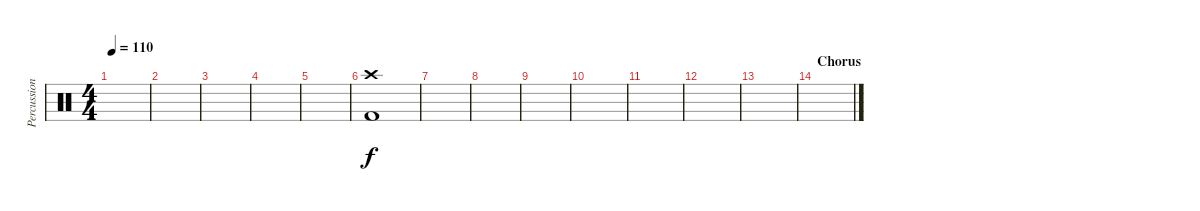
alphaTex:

\track ("Percussion" "Percussion") {instrument percussion}
\staff {score}
\articulation defaults
\ts (4 4)
\tempo 110
\clef neutral
\ks c
|
|
|
|
|
("Crash high (hit)" "Kick (hit) 2").1 |
|
|
|
|
|
|
|
\section ("" "Chorus")
